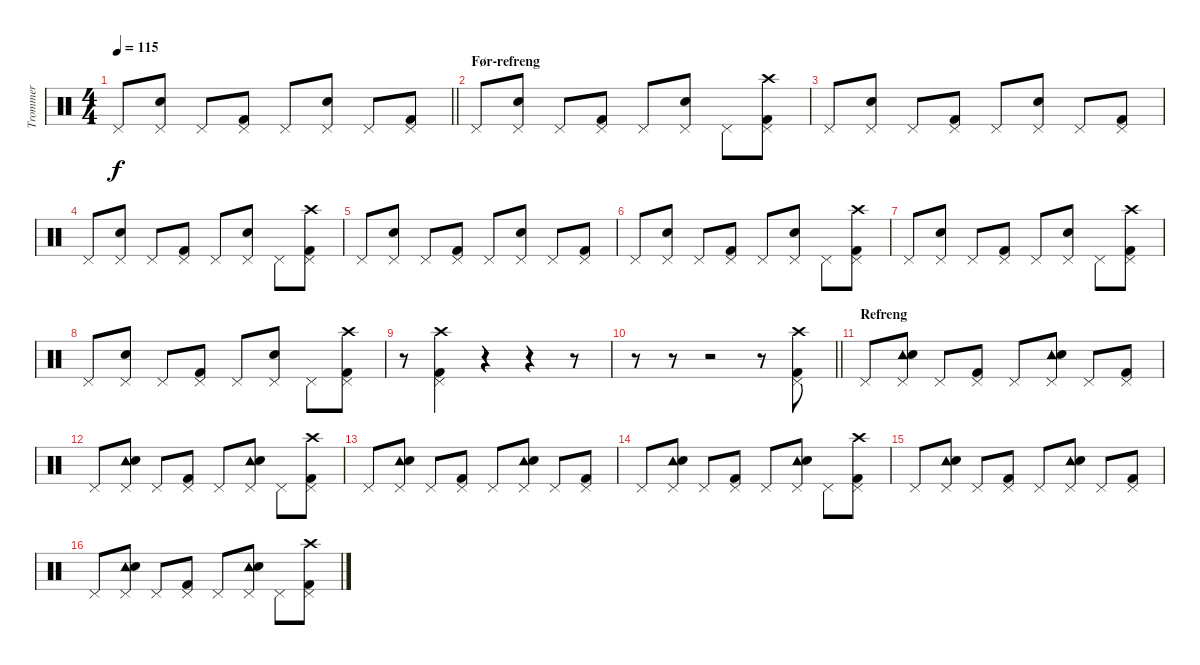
\track ("Trommer" "Trommer") {instrument percussion}
\staff {score}
\articulation defaults
\ts (4 4)
\tempo 115
\clef neutral
\barLineRight lightlight
\ks c "Pedal Hi-Hat (hit)".8{dy f}
("Pedal Hi-Hat (hit)" "Electric Snare (hit)").8 "Pedal Hi-Hat (hit)".8 ("Pedal Hi-Hat (hit)" "Kick (hit) 2").8 "Pedal Hi-Hat (hit)".8 ("Pedal Hi-Hat (hit)" "Electric Snare (hit)").8 "Pedal Hi-Hat (hit)".8 ("Pedal Hi-Hat (hit)" "Kick (hit) 2").8 |
\section ("" "Før-refreng")
"Pedal Hi-Hat (hit)".8 ("Pedal Hi-Hat (hit)" "Electric Snare (hit)").8 "Pedal Hi-Hat (hit)".8 ("Pedal Hi-Hat (hit)" "Kick (hit) 2").8 "Pedal Hi-Hat (hit)".8 ("Pedal Hi-Hat (hit)" "Electric Snare (hit)").8 "Pedal Hi-Hat (hit)".8 ("Pedal Hi-Hat (hit)" "Crash high (hit)" "Kick (hit) 2").8 |
"Pedal Hi-Hat (hit)".8 ("Pedal Hi-Hat (hit)" "Electric Snare (hit)").8 "Pedal Hi-Hat (hit)".8 ("Pedal Hi-Hat (hit)" "Kick (hit) 2").8 "Pedal Hi-Hat (hit)".8 ("Pedal Hi-Hat (hit)" "Electric Snare (hit)").8 "Pedal Hi-Hat (hit)".8 ("Pedal Hi-Hat (hit)" "Kick (hit) 2").8 |
"Pedal Hi-Hat (hit)".8 ("Pedal Hi-Hat (hit)" "Electric Snare (hit)").8 "Pedal Hi-Hat (hit)".8 ("Pedal Hi-Hat (hit)" "Kick (hit) 2").8 "Pedal Hi-Hat (hit)".8 ("Pedal Hi-Hat (hit)" "Electric Snare (hit)").8 "Pedal Hi-Hat (hit)".8 ("Pedal Hi-Hat (hit)" "Crash high (hit)" "Kick (hit) 2").8 |
"Pedal Hi-Hat (hit)".8 ("Pedal Hi-Hat (hit)" "Electric Snare (hit)").8 "Pedal Hi-Hat (hit)".8 ("Pedal Hi-Hat (hit)" "Kick (hit) 2").8 "Pedal Hi-Hat (hit)".8 ("Pedal Hi-Hat (hit)" "Electric Snare (hit)").8 "Pedal Hi-Hat (hit)".8 ("Pedal Hi-Hat (hit)" "Kick (hit) 2").8 |
"Pedal Hi-Hat (hit)".8 ("Pedal Hi-Hat (hit)" "Electric Snare (hit)").8 "Pedal Hi-Hat (hit)".8 ("Pedal Hi-Hat (hit)" "Kick (hit) 2").8 "Pedal Hi-Hat (hit)".8 ("Pedal Hi-Hat (hit)" "Electric Snare (hit)").8 "Pedal Hi-Hat (hit)".8 ("Pedal Hi-Hat (hit)" "Crash high (hit)" "Kick (hit) 2").8 |
"Pedal Hi-Hat (hit)".8 ("Pedal Hi-Hat (hit)" "Electric Snare (hit)").8 "Pedal Hi-Hat (hit)".8 ("Pedal Hi-Hat (hit)" "Kick (hit) 2").8 "Pedal Hi-Hat (hit)".8 ("Pedal Hi-Hat (hit)" "Electric Snare (hit)").8 "Pedal Hi-Hat (hit)".8 ("Pedal Hi-Hat (hit)" "Crash high (hit)" "Kick (hit) 2").8 |
"Pedal Hi-Hat (hit)".8 ("Pedal Hi-Hat (hit)" "Electric Snare (hit)").8 "Pedal Hi-Hat (hit)".8 ("Pedal Hi-Hat (hit)" "Kick (hit) 2").8 "Pedal Hi-Hat (hit)".8 ("Pedal Hi-Hat (hit)" "Electric Snare (hit)").8 "Pedal Hi-Hat (hit)".8 ("Pedal Hi-Hat (hit)" "Crash high (hit)" "Kick (hit) 2").8 |
r.8 ("Pedal Hi-Hat (hit)" "Crash high (hit)" "Kick (hit) 2").4 r.4 r.4 r.8 |
\barLineRight lightlight
r.8 r.8 r.2 r.8 ("Pedal Hi-Hat (hit)" "Crash high (hit)" "Kick (hit) 2").8 |
\section ("" "Refreng")
"Pedal Hi-Hat (hit)".8 ("Pedal Hi-Hat (hit)" "Tambourine (hit)" "Electric Snare (hit)").8 "Pedal Hi-Hat (hit)".8 ("Pedal Hi-Hat (hit)" "Kick (hit) 2").8 "Pedal Hi-Hat (hit)".8 ("Pedal Hi-Hat (hit)" "Tambourine (hit)" "Electric Snare (hit)").8 "Pedal Hi-Hat (hit)".8 ("Pedal Hi-Hat (hit)" "Kick (hit) 2").8 |
"Pedal Hi-Hat (hit)".8 ("Pedal Hi-Hat (hit)" "Tambourine (hit)" "Electric Snare (hit)").8 "Pedal Hi-Hat (hit)".8 ("Pedal Hi-Hat (hit)" "Kick (hit) 2").8 "Pedal Hi-Hat (hit)".8 ("Pedal Hi-Hat (hit)" "Tambourine (hit)" "Electric Snare (hit)").8 "Pedal Hi-Hat (hit)".8 ("Pedal Hi-Hat (hit)" "Crash high (hit)" "Kick (hit) 2").8 |
"Pedal Hi-Hat (hit)".8 ("Pedal Hi-Hat (hit)" "Tambourine (hit)" "Electric Snare (hit)").8 "Pedal Hi-Hat (hit)".8 ("Pedal Hi-Hat (hit)" "Kick (hit) 2").8 "Pedal Hi-Hat (hit)".8 ("Pedal Hi-Hat (hit)" "Tambourine (hit)" "Electric Snare (hit)").8 "Pedal Hi-Hat (hit)".8 ("Pedal Hi-Hat (hit)" "Kick (hit) 2").8 |
"Pedal Hi-Hat (hit)".8 ("Pedal Hi-Hat (hit)" "Tambourine (hit)" "Electric Snare (hit)").8 "Pedal Hi-Hat (hit)".8 ("Pedal Hi-Hat (hit)" "Kick (hit) 2").8 "Pedal Hi-Hat (hit)".8 ("Pedal Hi-Hat (hit)" "Tambourine (hit)" "Electric Snare (hit)").8 "Pedal Hi-Hat (hit)".8 ("Pedal Hi-Hat (hit)" "Crash high (hit)" "Kick (hit) 2").8 |
"Pedal Hi-Hat (hit)".8 ("Pedal Hi-Hat (hit)" "Tambourine (hit)" "Electric Snare (hit)").8 "Pedal Hi-Hat (hit)".8 ("Pedal Hi-Hat (hit)" "Kick (hit) 2").8 "Pedal Hi-Hat (hit)".8 ("Pedal Hi-Hat (hit)" "Tambourine (hit)" "Electric Snare (hit)").8 "Pedal Hi-Hat (hit)".8 ("Pedal Hi-Hat (hit)" "Kick (hit) 2").8 |
"Pedal Hi-Hat (hit)".8 ("Pedal Hi-Hat (hit)" "Tambourine (hit)" "Electric Snare (hit)").8 "Pedal Hi-Hat (hit)".8 ("Pedal Hi-Hat (hit)" "Kick (hit) 2").8 "Pedal Hi-Hat (hit)".8 ("Pedal Hi-Hat (hit)" "Tambourine (hit)" "Electric Snare (hit)").8 "Pedal Hi-Hat (hit)".8 ("Pedal Hi-Hat (hit)" "Crash high (hit)" "Kick (hit) 2").8
